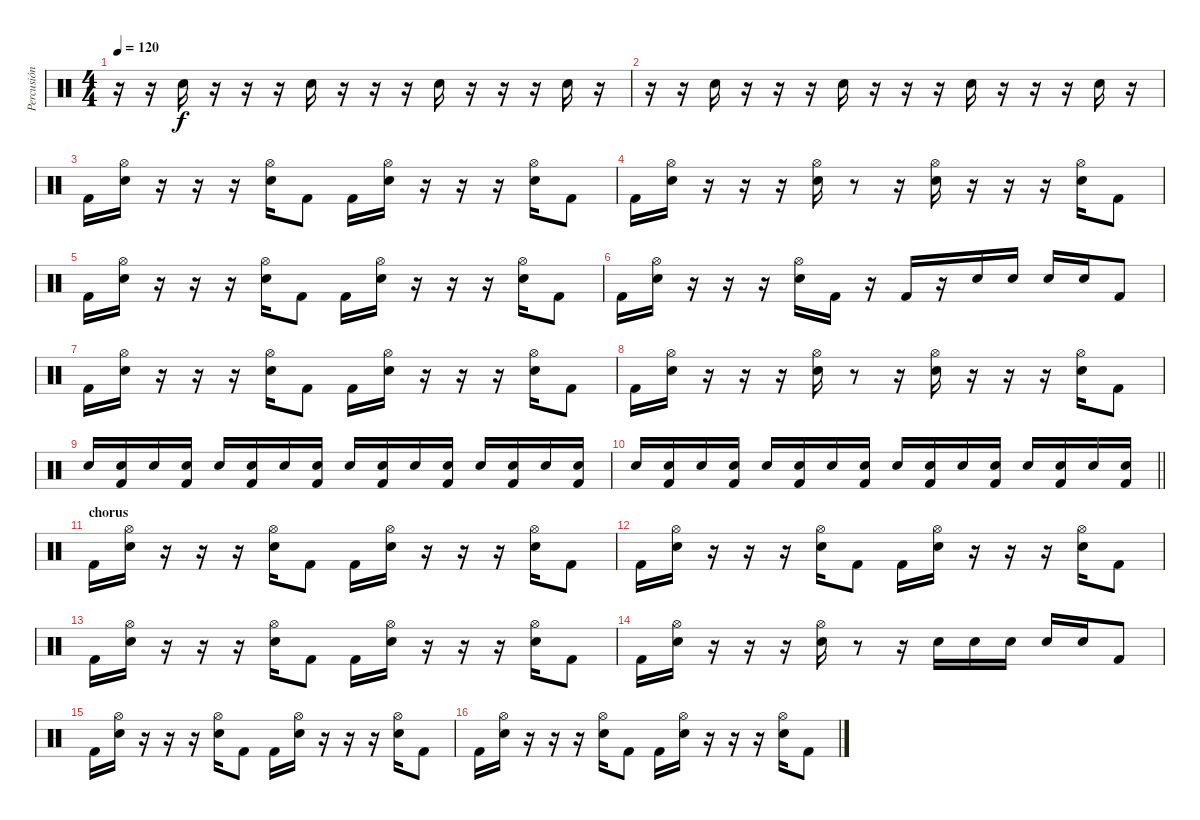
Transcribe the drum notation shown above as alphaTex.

\track ("Percusión" "Percusión") {instrument percussion}
\staff {score}
\articulation defaults
\ts (4 4)
\tempo 120
\clef neutral
\ks c
r.16{dy f} r.16 "Electric Snare (hit)".16 r.16 r.16 r.16 "Electric Snare (hit)".16 r.16 r.16 r.16 "Electric Snare (hit)".16 r.16 r.16 r.16 "Electric Snare (hit)".16 r.16 |
r.16 r.16 "Electric Snare (hit)".16 r.16 r.16 r.16 "Electric Snare (hit)".16 r.16 r.16 r.16 "Electric Snare (hit)".16 r.16 r.16 r.16 "Electric Snare (hit)".16 r.16 |
"Kick (hit) 2".16 ("Hi-Hat (open)" "Electric Snare (hit)").16 r.16 r.16 r.16 ("Hi-Hat (open)" "Electric Snare (hit)").16 "Kick (hit) 2".8 "Kick (hit) 2".16 ("Hi-Hat (open)" "Electric Snare (hit)").16 r.16 r.16 r.16 ("Hi-Hat (open)" "Electric Snare (hit)").16 "Kick (hit) 2".8 |
"Kick (hit) 2".16 ("Hi-Hat (open)" "Electric Snare (hit)").16 r.16 r.16 r.16 ("Hi-Hat (open)" "Electric Snare (hit)").16 r.8 r.16 ("Hi-Hat (open)" "Electric Snare (hit)").16 r.16 r.16 r.16 ("Hi-Hat (open)" "Electric Snare (hit)").16 "Kick (hit) 2".8 |
"Kick (hit) 2".16 ("Hi-Hat (open)" "Electric Snare (hit)").16 r.16 r.16 r.16 ("Hi-Hat (open)" "Electric Snare (hit)").16 "Kick (hit) 2".8 "Kick (hit) 2".16 ("Hi-Hat (open)" "Electric Snare (hit)").16 r.16 r.16 r.16 ("Hi-Hat (open)" "Electric Snare (hit)").16 "Kick (hit) 2".8 |
"Kick (hit) 2".16 ("Hi-Hat (open)" "Electric Snare (hit)").16 r.16 r.16 r.16 ("Hi-Hat (open)" "Electric Snare (hit)").16 "Kick (hit) 2".16 r.16 "Kick (hit) 2".16 r.16 "Electric Snare (hit)".16 "Electric Snare (hit)".16 "Electric Snare (hit)".16 "Electric Snare (hit)".16 "Kick (hit) 2".8 |
"Kick (hit) 2".16 ("Hi-Hat (open)" "Electric Snare (hit)").16 r.16 r.16 r.16 ("Hi-Hat (open)" "Electric Snare (hit)").16 "Kick (hit) 2".8 "Kick (hit) 2".16 ("Hi-Hat (open)" "Electric Snare (hit)").16 r.16 r.16 r.16 ("Hi-Hat (open)" "Electric Snare (hit)").16 "Kick (hit) 2".8 |
"Kick (hit) 2".16 ("Hi-Hat (open)" "Electric Snare (hit)").16 r.16 r.16 r.16 ("Hi-Hat (open)" "Electric Snare (hit)").16 r.8 r.16 ("Hi-Hat (open)" "Electric Snare (hit)").16 r.16 r.16 r.16 ("Hi-Hat (open)" "Electric Snare (hit)").16 "Kick (hit) 2".8 |
"Electric Snare (hit)".16{volume 8} ("Electric Snare (hit)" "Kick (hit) 2").16{volume 16} "Electric Snare (hit)".16 ("Electric Snare (hit)" "Kick (hit) 2").16 "Electric Snare (hit)".16 ("Electric Snare (hit)" "Kick (hit) 2").16 "Electric Snare (hit)".16 ("Electric Snare (hit)" "Kick (hit) 2").16 "Electric Snare (hit)".16 ("Electric Snare (hit)" "Kick (hit) 2").16 "Electric Snare (hit)".16 ("Electric Snare (hit)" "Kick (hit) 2").16 "Electric Snare (hit)".16 ("Electric Snare (hit)" "Kick (hit) 2").16 "Electric Snare (hit)".16 ("Electric Snare (hit)" "Kick (hit) 2").16 |
\barLineRight lightlight "Electric Snare (hit)".16
("Electric Snare (hit)" "Kick (hit) 2").16 "Electric Snare (hit)".16 ("Electric Snare (hit)" "Kick (hit) 2").16 "Electric Snare (hit)".16 ("Electric Snare (hit)" "Kick (hit) 2").16 "Electric Snare (hit)".16 ("Electric Snare (hit)" "Kick (hit) 2").16 "Electric Snare (hit)".16 ("Electric Snare (hit)" "Kick (hit) 2").16 "Electric Snare (hit)".16 ("Electric Snare (hit)" "Kick (hit) 2").16 "Electric Snare (hit)".16 ("Electric Snare (hit)" "Kick (hit) 2").16 "Electric Snare (hit)".16 ("Electric Snare (hit)" "Kick (hit) 2").16 |
\section ("" "chorus")
"Kick (hit) 2".16 ("Hi-Hat (open)" "Electric Snare (hit)").16 r.16 r.16 r.16 ("Hi-Hat (open)" "Electric Snare (hit)").16 "Kick (hit) 2".8 "Kick (hit) 2".16 ("Hi-Hat (open)" "Electric Snare (hit)").16 r.16 r.16 r.16 ("Hi-Hat (open)" "Electric Snare (hit)").16 "Kick (hit) 2".8 |
"Kick (hit) 2".16 ("Hi-Hat (open)" "Electric Snare (hit)").16 r.16 r.16 r.16 ("Hi-Hat (open)" "Electric Snare (hit)").16 "Kick (hit) 2".8 "Kick (hit) 2".16 ("Hi-Hat (open)" "Electric Snare (hit)").16 r.16 r.16 r.16 ("Hi-Hat (open)" "Electric Snare (hit)").16 "Kick (hit) 2".8 |
"Kick (hit) 2".16 ("Hi-Hat (open)" "Electric Snare (hit)").16 r.16 r.16 r.16 ("Hi-Hat (open)" "Electric Snare (hit)").16 "Kick (hit) 2".8 "Kick (hit) 2".16 ("Hi-Hat (open)" "Electric Snare (hit)").16 r.16 r.16 r.16 ("Hi-Hat (open)" "Electric Snare (hit)").16 "Kick (hit) 2".8 |
"Kick (hit) 2".16 ("Hi-Hat (open)" "Electric Snare (hit)").16 r.16 r.16 r.16 ("Hi-Hat (open)" "Electric Snare (hit)").16 r.8 r.16 "Electric Snare (hit)".16 "Electric Snare (hit)".16 "Electric Snare (hit)".16 "Electric Snare (hit)".16 "Electric Snare (hit)".16 "Kick (hit) 2".8 |
"Kick (hit) 2".16 ("Hi-Hat (open)" "Electric Snare (hit)").16 r.16 r.16 r.16 ("Hi-Hat (open)" "Electric Snare (hit)").16 "Kick (hit) 2".8 "Kick (hit) 2".16 ("Hi-Hat (open)" "Electric Snare (hit)").16 r.16 r.16 r.16 ("Hi-Hat (open)" "Electric Snare (hit)").16 "Kick (hit) 2".8 |
"Kick (hit) 2".16 ("Hi-Hat (open)" "Electric Snare (hit)").16 r.16 r.16 r.16 ("Hi-Hat (open)" "Electric Snare (hit)").16 "Kick (hit) 2".8 "Kick (hit) 2".16 ("Hi-Hat (open)" "Electric Snare (hit)").16 r.16 r.16 r.16 ("Hi-Hat (open)" "Electric Snare (hit)").16 "Kick (hit) 2".8
